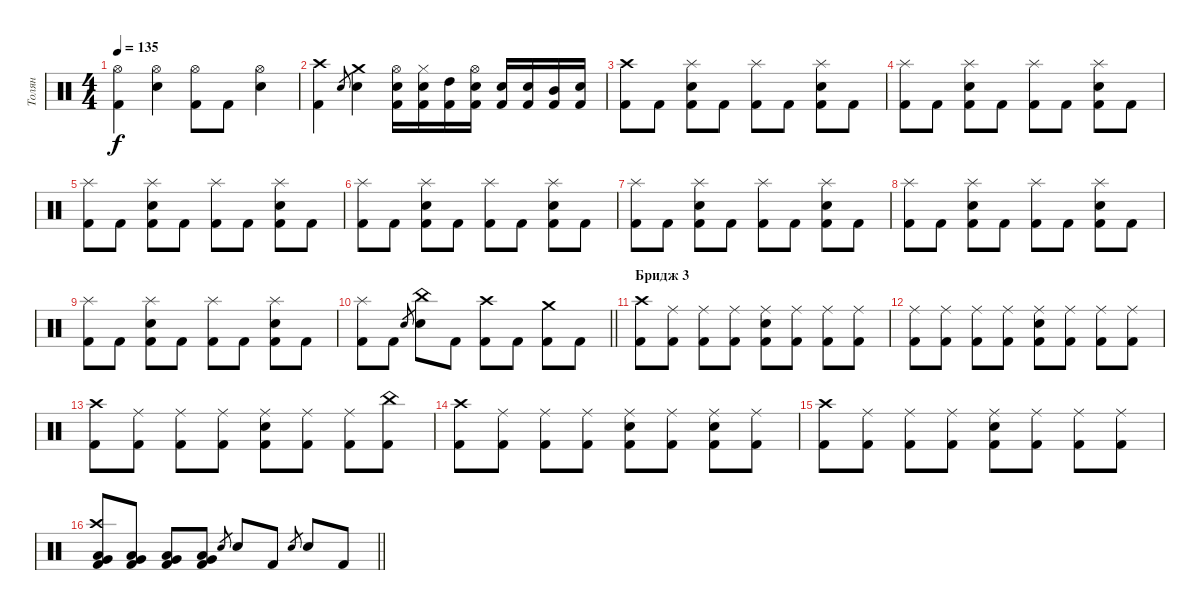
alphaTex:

\track ("Толян" "Толян") {instrument percussion}
\staff {score}
\articulation defaults
\ts (4 4)
\tempo 135
\clef neutral
\ks c
("Hi-Hat (open)" "Kick (hit) 2").4{dy f} ("Hi-Hat (open)" "Electric Snare (hit)").4 ("Hi-Hat (open)" "Kick (hit) 2").8 "Kick (hit) 2".8 ("Hi-Hat (open)" "Electric Snare (hit)").4 |
("Crash high (hit)" "Kick (hit) 2").4 "Electric Snare (hit)".8{gr} ("Crash medium (hit)" "Electric Snare (hit)").4 ("Hi-Hat (open)" "Electric Snare (hit)" "Kick (hit) 2").16 ("Hi-Hat (closed)" "Electric Snare (hit)" "Kick (hit) 2").16 ("High Tom (hit)" "Kick (hit) 2").16 ("Hi-Hat (open)" "Electric Snare (hit)" "Kick (hit) 2").16 ("Electric Snare (hit)" "Kick (hit) 2").16 ("Electric Snare (hit)" "Kick (hit) 2").16 ("Mid Tom (hit)" "Kick (hit) 2").16 ("Electric Snare (hit)" "Kick (hit) 2").16 |
("Crash high (hit)" "Kick (hit) 2").8 "Kick (hit) 2".8 ("Splash (hit)" "Electric Snare (hit)" "Kick (hit) 2").8 "Kick (hit) 2".8 ("Splash (hit)" "Kick (hit) 2").8 "Kick (hit) 2".8 ("Splash (hit)" "Electric Snare (hit)" "Kick (hit) 2").8 "Kick (hit) 2".8 |
("Splash (hit)" "Kick (hit) 2").8 "Kick (hit) 2".8 ("Splash (hit)" "Electric Snare (hit)" "Kick (hit) 2").8 "Kick (hit) 2".8 ("Splash (hit)" "Kick (hit) 2").8 "Kick (hit) 2".8 ("Splash (hit)" "Electric Snare (hit)" "Kick (hit) 2").8 "Kick (hit) 2".8 |
("Splash (hit)" "Kick (hit) 2").8 "Kick (hit) 2".8 ("Splash (hit)" "Electric Snare (hit)" "Kick (hit) 2").8 "Kick (hit) 2".8 ("Splash (hit)" "Kick (hit) 2").8 "Kick (hit) 2".8 ("Splash (hit)" "Electric Snare (hit)" "Kick (hit) 2").8 "Kick (hit) 2".8 |
("Splash (hit)" "Kick (hit) 2").8 "Kick (hit) 2".8 ("Splash (hit)" "Electric Snare (hit)" "Kick (hit) 2").8 "Kick (hit) 2".8 ("Splash (hit)" "Kick (hit) 2").8 "Kick (hit) 2".8 ("Splash (hit)" "Electric Snare (hit)" "Kick (hit) 2").8 "Kick (hit) 2".8 |
("Splash (hit)" "Kick (hit) 2").8 "Kick (hit) 2".8 ("Splash (hit)" "Electric Snare (hit)" "Kick (hit) 2").8 "Kick (hit) 2".8 ("Splash (hit)" "Kick (hit) 2").8 "Kick (hit) 2".8 ("Splash (hit)" "Electric Snare (hit)" "Kick (hit) 2").8 "Kick (hit) 2".8 |
("Splash (hit)" "Kick (hit) 2").8 "Kick (hit) 2".8 ("Splash (hit)" "Electric Snare (hit)" "Kick (hit) 2").8 "Kick (hit) 2".8 ("Splash (hit)" "Kick (hit) 2").8 "Kick (hit) 2".8 ("Splash (hit)" "Electric Snare (hit)" "Kick (hit) 2").8 "Kick (hit) 2".8 |
("Splash (hit)" "Kick (hit) 2").8 "Kick (hit) 2".8 ("Splash (hit)" "Electric Snare (hit)" "Kick (hit) 2").8 "Kick (hit) 2".8 ("Splash (hit)" "Kick (hit) 2").8 "Kick (hit) 2".8 ("Splash (hit)" "Electric Snare (hit)" "Kick (hit) 2").8 "Kick (hit) 2".8 |
\barLineRight lightlight
("Splash (hit)" "Kick (hit) 2").8 "Kick (hit) 2".8 "Electric Snare (hit)".8{gr} ("China (hit)" "Electric Snare (hit)").8 "Kick (hit) 2".8 ("Crash high (hit)" "Kick (hit) 2").8 "Kick (hit) 2".8 ("Crash medium (hit)" "Kick (hit) 2").8 "Kick (hit) 2".8 |
\section ("" "Бридж 3")
("Crash high (hit)" "Kick (hit) 2").8 ("Ride (middle)" "Kick (hit) 2").8 ("Ride (middle)" "Kick (hit) 2").8 ("Ride (middle)" "Kick (hit) 2").8 ("Ride (middle)" "Electric Snare (hit)" "Kick (hit) 2").8 ("Ride (middle)" "Kick (hit) 2").8 ("Ride (middle)" "Kick (hit) 2").8 ("Ride (middle)" "Kick (hit) 2").8 |
("Ride (middle)" "Kick (hit) 2").8 ("Ride (middle)" "Kick (hit) 2").8 ("Ride (middle)" "Kick (hit) 2").8 ("Ride (middle)" "Kick (hit) 2").8 ("Ride (middle)" "Electric Snare (hit)" "Kick (hit) 2").8 ("Ride (middle)" "Kick (hit) 2").8 ("Ride (middle)" "Kick (hit) 2").8 ("Ride (middle)" "Kick (hit) 2").8 |
("Crash high (hit)" "Kick (hit) 2").8 ("Ride (middle)" "Kick (hit) 2").8 ("Ride (middle)" "Kick (hit) 2").8 ("Ride (middle)" "Kick (hit) 2").8 ("Ride (middle)" "Electric Snare (hit)" "Kick (hit) 2").8 ("Ride (middle)" "Kick (hit) 2").8 ("Ride (middle)" "Kick (hit) 2").8 ("China (hit)" "Kick (hit) 2").8 |
("Crash high (hit)" "Kick (hit) 2").8 ("Ride (middle)" "Kick (hit) 2").8 ("Ride (middle)" "Kick (hit) 2").8 ("Ride (middle)" "Kick (hit) 2").8 ("Ride (middle)" "Electric Snare (hit)" "Kick (hit) 2").8 ("Ride (middle)" "Kick (hit) 2").8 ("Ride (middle)" "Electric Snare (hit)" "Kick (hit) 2").8 ("Ride (middle)" "Kick (hit) 2").8 |
("Crash high (hit)" "Kick (hit) 2").8 ("Ride (middle)" "Kick (hit) 2").8 ("Ride (middle)" "Kick (hit) 2").8 ("Ride (middle)" "Kick (hit) 2").8 ("Ride (middle)" "Electric Snare (hit)" "Kick (hit) 2").8 ("Ride (middle)" "Kick (hit) 2").8 ("Ride (middle)" "Kick (hit) 2").8 ("Ride (middle)" "Kick (hit) 2").8 |
\barLineRight lightlight
("Crash high (hit)" "Very Low Tom (hit)" "Low Tom (hit)" "Kick (hit) 2").8 ("Very Low Tom (hit)" "Low Tom (hit)" "Kick (hit) 2").8 ("Very Low Tom (hit)" "Low Tom (hit)" "Kick (hit) 2").8 ("Very Low Tom (hit)" "Low Tom (hit)" "Kick (hit) 2").8 "Electric Snare (hit)".8{gr} "Electric Snare (hit)".8 "Kick (hit) 2".8 "Electric Snare (hit)".8{gr} "Electric Snare (hit)".8 "Kick (hit) 2".8
